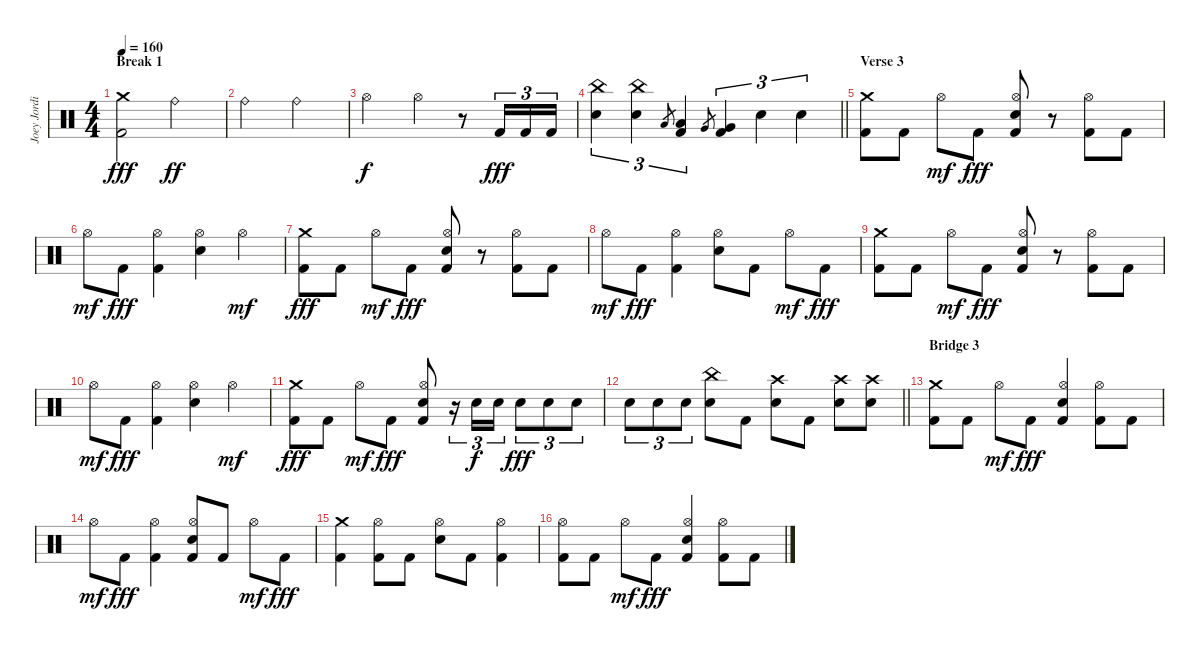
\track ("Joey Jordison" "Joey Jordi") {instrument percussion}
\staff {score}
\articulation defaults
\ts (4 4)
\section ("" "Break 1")
\tempo 160
\clef neutral
\ks c
("Crash medium (hit)" "Kick (hit) 2").2{dy fff} "Ride (bell)".2{dy ff} |
"Ride (bell)".2 "Ride (bell)".2 |
"Hi-Hat (open)".2{dy f} "Hi-Hat (open)".4 r.8 "Kick (hit) 2".16{tu (3 2) dy fff} "Kick (hit) 2".16{tu (3 2)} "Kick (hit) 2".16{tu (3 2)} |
\barLineRight lightlight
("China (hit)" "Electric Snare (hit)").4{tu (3 2)} ("China (hit)" "Electric Snare (hit)").4{tu (3 2)} "Low Tom (hit)".8{gr} ("Low Tom (hit)" "Kick (hit) 2").4{tu (3 2)} "Very Low Tom (hit)".8{gr} ("Very Low Tom (hit)" "Kick (hit) 2").4{tu (3 2)} "Electric Snare (hit)".4{tu (3 2)} "Electric Snare (hit)".4{tu (3 2)} |
\section ("" "Verse 3")
("Crash medium (hit)" "Kick (hit) 2").8 "Kick (hit) 2".8 "Hi-Hat (open)".8{dy mf} "Kick (hit) 2".8{dy fff} ("Hi-Hat (open)" "Electric Snare (hit)" "Kick (hit) 2").8 r.8 ("Hi-Hat (open)" "Kick (hit) 2").8 "Kick (hit) 2".8 |
"Hi-Hat (open)".8{dy mf} "Kick (hit) 2".8{dy fff} ("Hi-Hat (open)" "Kick (hit) 2").4 ("Hi-Hat (open)" "Electric Snare (hit)").4 "Hi-Hat (open)".4{dy mf} |
("Crash medium (hit)" "Kick (hit) 2").8{dy fff} "Kick (hit) 2".8 "Hi-Hat (open)".8{dy mf} "Kick (hit) 2".8{dy fff} ("Hi-Hat (open)" "Electric Snare (hit)" "Kick (hit) 2").8 r.8 ("Hi-Hat (open)" "Kick (hit) 2").8 "Kick (hit) 2".8 |
"Hi-Hat (open)".8{dy mf} "Kick (hit) 2".8{dy fff} ("Hi-Hat (open)" "Kick (hit) 2").4 ("Hi-Hat (open)" "Electric Snare (hit)").8 "Kick (hit) 2".8 "Hi-Hat (open)".8{dy mf} "Kick (hit) 2".8{dy fff} |
("Crash medium (hit)" "Kick (hit) 2").8 "Kick (hit) 2".8 "Hi-Hat (open)".8{dy mf} "Kick (hit) 2".8{dy fff} ("Hi-Hat (open)" "Electric Snare (hit)" "Kick (hit) 2").8 r.8 ("Hi-Hat (open)" "Kick (hit) 2").8 "Kick (hit) 2".8 |
"Hi-Hat (open)".8{dy mf} "Kick (hit) 2".8{dy fff} ("Hi-Hat (open)" "Kick (hit) 2").4 ("Hi-Hat (open)" "Electric Snare (hit)").4 "Hi-Hat (open)".4{dy mf} |
("Crash medium (hit)" "Kick (hit) 2").8{dy fff} "Kick (hit) 2".8 "Hi-Hat (open)".8{dy mf} "Kick (hit) 2".8{dy fff} ("Hi-Hat (open)" "Electric Snare (hit)" "Kick (hit) 2").8 r.16{tu (3 2)} "Electric Snare (hit)".16{tu (3 2) dy f} "Electric Snare (hit)".16{tu (3 2)} "Electric Snare (hit)".8{tu (3 2) dy fff} "Electric Snare (hit)".8{tu (3 2)} "Electric Snare (hit)".8{tu (3 2)} |
\barLineRight lightlight "Electric Snare (hit)".8{tu (3 2)} "Electric Snare (hit)".8{tu (3 2)} "Electric Snare (hit)".8{tu (3 2)}
("China (hit)" "Electric Snare (hit)").8 "Kick (hit) 2".8 ("Crash high (hit)" "Electric Snare (hit)").8 "Kick (hit) 2".8 ("Crash high (hit)" "Electric Snare (hit)").8 ("Crash high (hit)" "Electric Snare (hit)").8 |
\section ("" "Bridge 3")
("Crash medium (hit)" "Kick (hit) 2").8 "Kick (hit) 2".8 "Hi-Hat (open)".8{dy mf} "Kick (hit) 2".8{dy fff} ("Hi-Hat (open)" "Electric Snare (hit)" "Kick (hit) 2").4 ("Hi-Hat (open)" "Kick (hit) 2").8 "Kick (hit) 2".8 |
"Hi-Hat (open)".8{dy mf} "Kick (hit) 2".8{dy fff} ("Hi-Hat (open)" "Kick (hit) 2").4 ("Hi-Hat (open)" "Electric Snare (hit)" "Kick (hit) 2").8 "Kick (hit) 2".8 "Hi-Hat (open)".8{dy mf} "Kick (hit) 2".8{dy fff} |
("Crash medium (hit)" "Kick (hit) 2").4 ("Hi-Hat (open)" "Kick (hit) 2").8 "Kick (hit) 2".8 ("Hi-Hat (open)" "Electric Snare (hit)").8 "Kick (hit) 2".8 ("Hi-Hat (open)" "Kick (hit) 2").4 |
("Hi-Hat (open)" "Kick (hit) 2").8 "Kick (hit) 2".8 "Hi-Hat (open)".8{dy mf} "Kick (hit) 2".8{dy fff} ("Hi-Hat (open)" "Electric Snare (hit)" "Kick (hit) 2").4 ("Hi-Hat (open)" "Kick (hit) 2").8 "Kick (hit) 2".8
